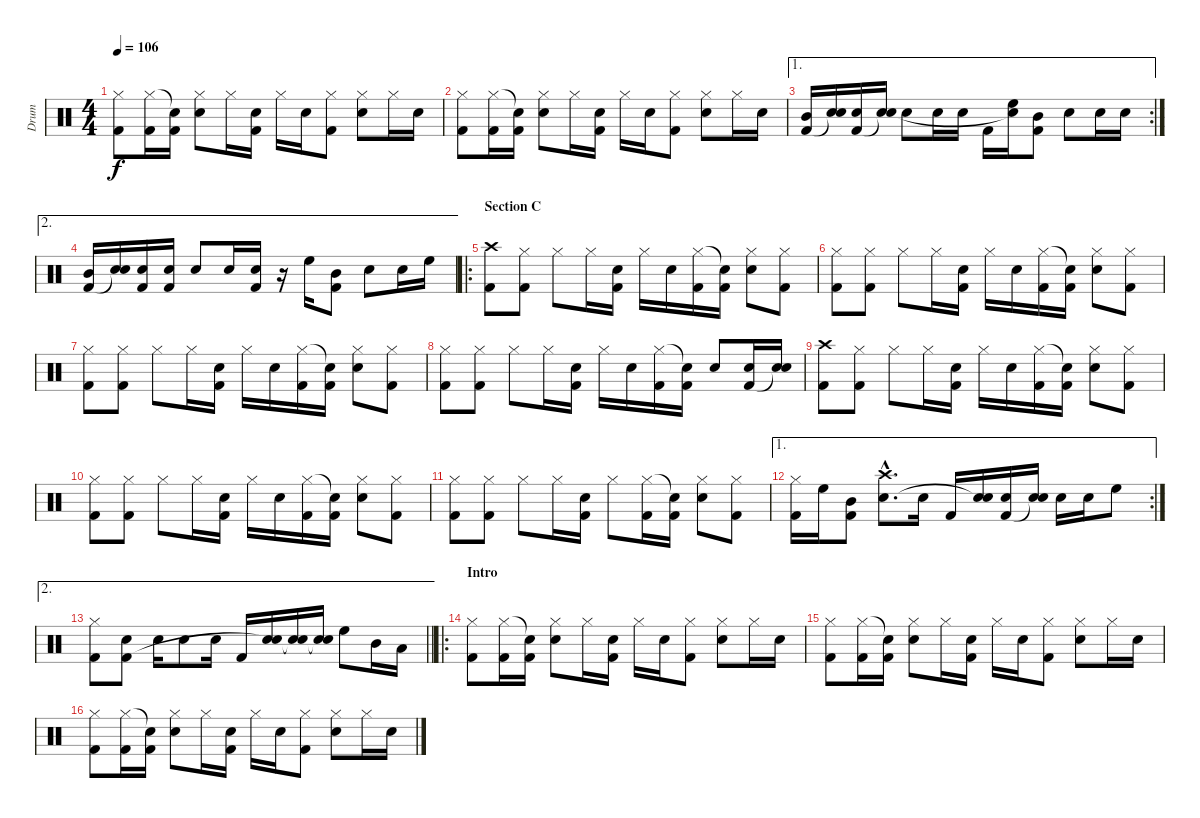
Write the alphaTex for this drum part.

\track ("Drum" "Drum") {instrument percussion}
\staff {score}
\articulation defaults
\ts (4 4)
\tempo 106
\clef neutral
\ks c
("Hi-Hat (closed)" "Kick (hit) 2").8{dy f} ("Hi-Hat (closed)" "Kick (hit) 2").16 ("Snare (hit)"{t} "Kick (hit) 2").16 ("Hi-Hat (closed)" "Snare (hit) 2").8 "Hi-Hat (closed)".16 ("Snare (hit) 2" "Kick (hit) 2").16 "Hi-Hat (closed)".16 "Snare (hit) 2".16 ("Hi-Hat (closed)" "Kick (hit) 2").8 ("Hi-Hat (closed)" "Snare (hit) 2").8 "Hi-Hat (closed)".16 "Snare (hit) 2".16 |
("Hi-Hat (closed)" "Kick (hit) 2").8 ("Hi-Hat (closed)" "Kick (hit) 2").16 ("Snare (hit)"{t} "Kick (hit) 2").16 ("Hi-Hat (closed)" "Snare (hit) 2").8 "Hi-Hat (closed)".16 ("Snare (hit) 2" "Kick (hit) 2").16 "Hi-Hat (closed)".16 "Snare (hit) 2".16 ("Hi-Hat (closed)" "Kick (hit) 2").8 ("Hi-Hat (closed)" "Snare (hit) 2").8 "Hi-Hat (closed)".16 "Snare (hit) 2".16 |
\ae 1
\rc 2
("Mid Tom (hit)" "Kick (hit) 2").16 ("Snare (hit) 2" "Snare (hit)"{t}).16 ("Snare (hit) 2" "Kick (hit) 2").16 ("Snare (hit) 2" "Snare (hit)"{t}).16 "Snare (hit) 2".8 "Snare (hit) 2".16 "Snare (hit) 2".16 "Kick (hit) 2".16 ("High Floor Tom (hit)" "Snare (hit)"{t}).16 ("Mid Tom (hit)" "Kick (hit) 2").8 "Snare (hit) 2".8 "Snare (hit) 2".16 "Snare (hit) 2".16 |
\ae 2
("Mid Tom (hit)" "Kick (hit) 2").16 ("Snare (hit) 2" "Snare (hit)"{t}).16 ("Snare (hit) 2" "Kick (hit) 2").16 ("Snare (hit) 2" "Kick (hit) 2").16 "Snare (hit) 2".8 "Snare (hit) 2".16 ("Snare (hit) 2" "Kick (hit) 2").16 r.16 "High Floor Tom (hit)".16 ("Mid Tom (hit)" "Kick (hit) 2").8 "Snare (hit) 2".8 "Snare (hit) 2".16 "High Floor Tom (hit)".16 |
\ro
\section ("" "Section C")
("Crash high (hit)" "Kick (hit) 2").8 ("Hi-Hat (closed)" "Kick (hit) 2").8 "Hi-Hat (closed)".8 "Hi-Hat (closed)".16 ("Snare (hit) 2" "Kick (hit) 2").16 "Hi-Hat (closed)".16 "Snare (hit) 2".16 ("Hi-Hat (closed)" "Kick (hit) 2").16 ("Snare (hit)"{t} "Kick (hit) 2").16 ("Hi-Hat (closed)" "Snare (hit) 2").8 ("Hi-Hat (closed)" "Kick (hit) 2").8 |
("Hi-Hat (closed)" "Kick (hit) 2").8 ("Hi-Hat (closed)" "Kick (hit) 2").8 "Hi-Hat (closed)".8 "Hi-Hat (closed)".16 ("Snare (hit) 2" "Kick (hit) 2").16 "Hi-Hat (closed)".16 "Snare (hit) 2".16 ("Hi-Hat (closed)" "Kick (hit) 2").16 ("Snare (hit)"{t} "Kick (hit) 2").16 ("Hi-Hat (closed)" "Snare (hit) 2").8 ("Hi-Hat (closed)" "Kick (hit) 2").8 |
("Hi-Hat (closed)" "Kick (hit) 2").8 ("Hi-Hat (closed)" "Kick (hit) 2").8 "Hi-Hat (closed)".8 "Hi-Hat (closed)".16 ("Snare (hit) 2" "Kick (hit) 2").16 "Hi-Hat (closed)".16 "Snare (hit) 2".16 ("Hi-Hat (closed)" "Kick (hit) 2").16 ("Snare (hit)"{t} "Kick (hit) 2").16 ("Hi-Hat (closed)" "Snare (hit) 2").8 ("Hi-Hat (closed)" "Kick (hit) 2").8 |
("Hi-Hat (closed)" "Kick (hit) 2").8 ("Hi-Hat (closed)" "Kick (hit) 2").8 "Hi-Hat (closed)".8 "Hi-Hat (closed)".16 ("Snare (hit) 2" "Kick (hit) 2").16 "Hi-Hat (closed)".16 "Snare (hit) 2".16 ("Hi-Hat (closed)" "Kick (hit) 2").16 ("Snare (hit)"{t} "Kick (hit) 2").16 "Snare (hit) 2".8 ("Snare (hit) 2" "Kick (hit) 2").16 ("Snare (hit) 2" "Snare (hit)"{t}).16 |
("Crash high (hit)" "Kick (hit) 2").8 ("Hi-Hat (closed)" "Kick (hit) 2").8 "Hi-Hat (closed)".8 "Hi-Hat (closed)".16 ("Snare (hit) 2" "Kick (hit) 2").16 "Hi-Hat (closed)".16 "Snare (hit) 2".16 ("Hi-Hat (closed)" "Kick (hit) 2").16 ("Snare (hit)"{t} "Kick (hit) 2").16 ("Hi-Hat (closed)" "Snare (hit) 2").8 ("Hi-Hat (closed)" "Kick (hit) 2").8 |
("Hi-Hat (closed)" "Kick (hit) 2").8 ("Hi-Hat (closed)" "Kick (hit) 2").8 "Hi-Hat (closed)".8 "Hi-Hat (closed)".16 ("Snare (hit) 2" "Kick (hit) 2").16 "Hi-Hat (closed)".16 "Snare (hit) 2".16 ("Hi-Hat (closed)" "Kick (hit) 2").16 ("Snare (hit)"{t} "Kick (hit) 2").16 ("Hi-Hat (closed)" "Snare (hit) 2").8 ("Hi-Hat (closed)" "Kick (hit) 2").8 |
("Hi-Hat (closed)" "Kick (hit) 2").8 ("Hi-Hat (closed)" "Kick (hit) 2").8 "Hi-Hat (closed)".8 "Hi-Hat (closed)".16 ("Snare (hit) 2" "Kick (hit) 2").16 "Hi-Hat (closed)".8 ("Hi-Hat (closed)" "Kick (hit) 2").16 ("Snare (hit)"{t} "Kick (hit) 2").16 ("Hi-Hat (closed)" "Snare (hit) 2").8 ("Hi-Hat (closed)" "Kick (hit) 2").8 |
\ae 1
\rc 2
("Hi-Hat (closed)" "Kick (hit) 2").16 "High Floor Tom (hit)".16 ("Mid Tom (hit)" "Kick (hit) 2").8 ("Crash high (hit)"{hac} "Snare (hit) 2"{hac}).8{d} "Snare (hit) 2".16 "Kick (hit) 2".16 ("Snare (hit) 2" "Snare (hit)"{t}).16 ("Snare (hit) 2" "Kick (hit) 2").16 ("Snare (hit) 2" "Snare (hit)"{t}).16 "Snare (hit) 2".16 "Snare (hit) 2".16 "High Floor Tom (hit)".8 |
\ae 2
\barLineRight lightlight
("Hi-Hat (closed)" "Kick (hit) 2").8 ("Snare (hit) 2" "Kick (hit) 2").8 "Snare (hit) 2".16 "Snare (hit) 2".8 "Snare (hit) 2".16 "Kick (hit) 2".16 ("Snare (hit) 2" "Snare (hit)"{t}).16 ("Snare (hit) 2" "Snare (hit)"{t}).16 ("Snare (hit) 2" "Snare (hit)"{t}).16 "High Floor Tom (hit)".8 "Mid Tom (hit)".16 "Low Tom (hit)".16 |
\ro
\section ("" "Intro")
("Hi-Hat (closed)" "Kick (hit) 2").8 ("Hi-Hat (closed)" "Kick (hit) 2").16 ("Snare (hit)"{t} "Kick (hit) 2").16 ("Hi-Hat (closed)" "Snare (hit) 2").8 "Hi-Hat (closed)".16 ("Snare (hit) 2" "Kick (hit) 2").16 "Hi-Hat (closed)".16 "Snare (hit) 2".16 ("Hi-Hat (closed)" "Kick (hit) 2").8 ("Hi-Hat (closed)" "Snare (hit) 2").8 "Hi-Hat (closed)".16 "Snare (hit) 2".16 |
("Hi-Hat (closed)" "Kick (hit) 2").8 ("Hi-Hat (closed)" "Kick (hit) 2").16 ("Snare (hit)"{t} "Kick (hit) 2").16 ("Hi-Hat (closed)" "Snare (hit) 2").8 "Hi-Hat (closed)".16 ("Snare (hit) 2" "Kick (hit) 2").16 "Hi-Hat (closed)".16 "Snare (hit) 2".16 ("Hi-Hat (closed)" "Kick (hit) 2").8 ("Hi-Hat (closed)" "Snare (hit) 2").8 "Hi-Hat (closed)".16 "Snare (hit) 2".16 |
("Hi-Hat (closed)" "Kick (hit) 2").8 ("Hi-Hat (closed)" "Kick (hit) 2").16 ("Snare (hit)"{t} "Kick (hit) 2").16 ("Hi-Hat (closed)" "Snare (hit) 2").8 "Hi-Hat (closed)".16 ("Snare (hit) 2" "Kick (hit) 2").16 "Hi-Hat (closed)".16 "Snare (hit) 2".16 ("Hi-Hat (closed)" "Kick (hit) 2").8 ("Hi-Hat (closed)" "Snare (hit) 2").8 "Hi-Hat (closed)".16 "Snare (hit) 2".16
